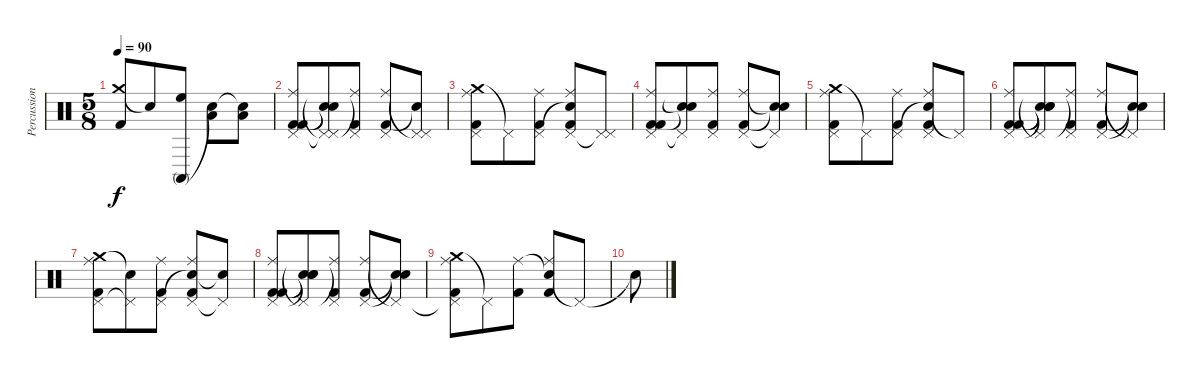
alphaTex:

\track ("Percussion" "Percussion") {instrument percussion}
\staff {score}
\articulation defaults
\ts (5 8)
\tempo 90
\clef neutral
\ks c
("Crash medium (hit)" "Kick (hit) 2").8{dy f} "Snare (hit)"{t}.8 ("Conga high (mute)" "High Floor Tom (hit)").8 ("Snare (hit)"{t} "Low Tom (hit)").8 ("Snare (hit)"{t} "Low Floor Tom (hit)").8 |
("Pedal Hi-Hat (hit)" "Ride (middle)" "Kick (hit) 2" "Kick (hit) 2").8 ("Pedal Hi-Hat (hit)"{t} "Pedal Hi-Hat (hit)"{t} "Snare (hit)"{t} "Snare (hit)"{t}).8 ("Pedal Hi-Hat (hit)" "Ride (middle)"{t} "Kick (hit) 2").8 ("Pedal Hi-Hat (hit)" "Ride (middle)" "Kick (hit) 2").8 ("Pedal Hi-Hat (hit)" "Pedal Hi-Hat (hit)"{t} "Snare (hit)"{t}).8 |
("Crash medium (hit)" "Pedal Hi-Hat (hit)" "Ride (middle)" "Kick (hit) 2").8 "Pedal Hi-Hat (hit)"{t}.8 ("Pedal Hi-Hat (hit)" "Ride (middle)" "Kick (hit) 2").8 ("Snare (hit)"{t} "Pedal Hi-Hat (hit)" "Ride (middle)" "Kick (hit) 2").8 ("Pedal Hi-Hat (hit)" "Pedal Hi-Hat (hit)"{t}).8 |
("Pedal Hi-Hat (hit)" "Ride (middle)" "Kick (hit) 2" "Kick (hit) 2").8 ("Pedal Hi-Hat (hit)"{t} "Snare (hit)"{t} "Snare (hit)"{t}).8 ("Pedal Hi-Hat (hit)" "Ride (middle)" "Kick (hit) 2").8 ("Pedal Hi-Hat (hit)" "Ride (middle)" "Kick (hit) 2").8 ("Pedal Hi-Hat (hit)"{t} "Snare (hit)"{t} "Snare (hit)"{t}).8 |
("Crash medium (hit)" "Pedal Hi-Hat (hit)" "Ride (middle)" "Kick (hit) 2").8 "Pedal Hi-Hat (hit)"{t}.8 ("Pedal Hi-Hat (hit)" "Ride (middle)" "Kick (hit) 2").8 ("Snare (hit)"{t} "Pedal Hi-Hat (hit)" "Ride (middle)" "Kick (hit) 2").8 "Pedal Hi-Hat (hit)"{t}.8 |
("Pedal Hi-Hat (hit)" "Ride (middle)" "Kick (hit) 2" "Kick (hit) 2").8 ("Snare (hit)"{t} "Pedal Hi-Hat (hit)"{t} "Snare (hit)"{t} "Snare (hit)"{t}).8 ("Pedal Hi-Hat (hit)" "Ride (middle)"{t} "Kick (hit) 2").8 ("Pedal Hi-Hat (hit)" "Ride (middle)" "Kick (hit) 2").8 ("Snare (hit)"{t} "Pedal Hi-Hat (hit)"{t} "Snare (hit)"{t}).8 |
("Crash medium (hit)" "Pedal Hi-Hat (hit)" "Ride (middle)" "Kick (hit) 2").8 ("Snare (hit)"{t} "Pedal Hi-Hat (hit)"{t}).8 ("Pedal Hi-Hat (hit)" "Ride (middle)" "Kick (hit) 2").8 ("Snare (hit)"{t} "Pedal Hi-Hat (hit)" "Ride (middle)" "Kick (hit) 2").8 ("Snare (hit)"{t} "Pedal Hi-Hat (hit)"{t}).8 |
("Pedal Hi-Hat (hit)" "Ride (middle)" "Kick (hit) 2" "Kick (hit) 2").8 ("Snare (hit)"{t} "Pedal Hi-Hat (hit)"{t} "Snare (hit)"{t} "Snare (hit)"{t}).8 ("Pedal Hi-Hat (hit)" "Ride (middle)"{t} "Kick (hit) 2").8 ("Pedal Hi-Hat (hit)" "Ride (middle)" "Kick (hit) 2").8 ("Snare (hit)"{t} "Pedal Hi-Hat (hit)"{t} "Snare (hit)"{t}).8 |
("Crash medium (hit)" "Pedal Hi-Hat (hit)"{t} "Ride (middle)" "Kick (hit) 2").8 "Pedal Hi-Hat (hit)"{t}.8 ("Ride (middle)" "Kick (hit) 2").8 ("Snare (hit)"{t} "Ride (middle)" "Kick (hit) 2").8 "Pedal Hi-Hat (hit)"{t}.8 |
"Snare (hit)"{t}.8
